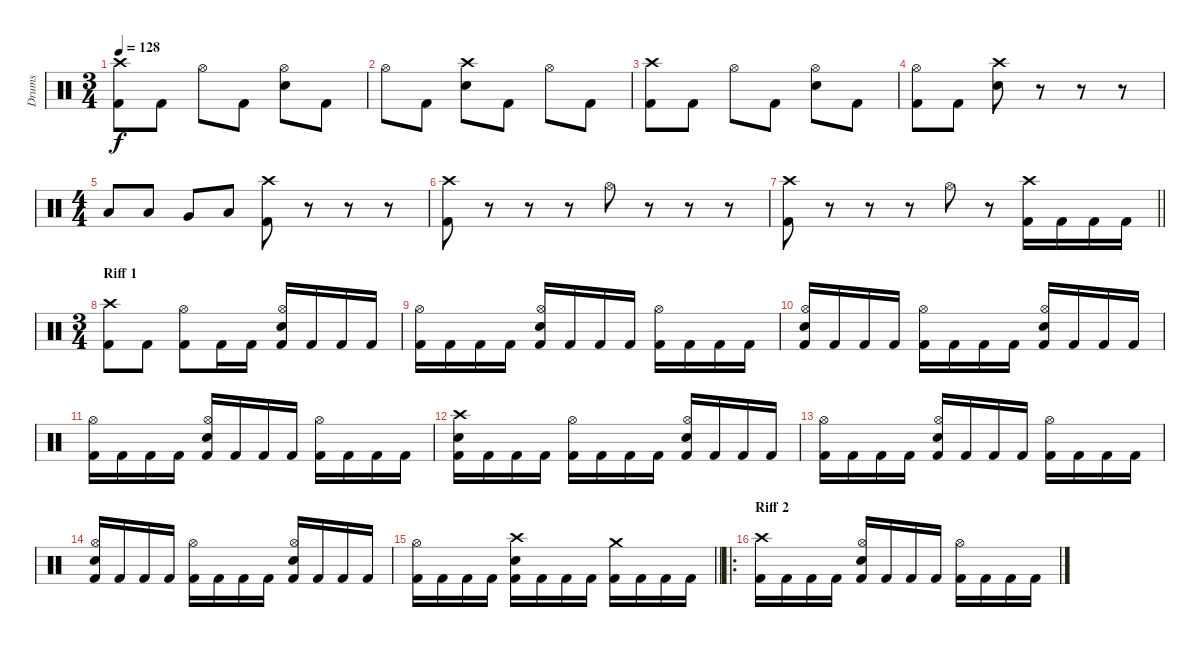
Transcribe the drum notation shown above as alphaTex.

\track ("Drums" "Drums") {instrument percussion}
\staff {score}
\articulation defaults
\ts (3 4)
\tempo 128
\clef neutral
\ks c
("Crash high (hit)" "Kick (hit) 2").8{dy f} "Kick (hit) 2".8 "Hi-Hat (open)".8 "Kick (hit) 2".8 ("Hi-Hat (open)" "Electric Snare (hit)").8 "Kick (hit) 2".8 |
"Hi-Hat (open)".8 "Kick (hit) 2".8 ("Crash high (hit)" "Electric Snare (hit)").8 "Kick (hit) 2".8 "Hi-Hat (open)".8 "Kick (hit) 2".8 |
("Crash high (hit)" "Kick (hit) 2").8 "Kick (hit) 2".8 "Hi-Hat (open)".8 "Kick (hit) 2".8 ("Hi-Hat (open)" "Electric Snare (hit)").8 "Kick (hit) 2".8 |
("Hi-Hat (open)" "Kick (hit) 2").8 "Kick (hit) 2".8 ("Crash high (hit)" "Electric Snare (hit)").8 r.8 r.8 r.8 |
\ts (4 4)
"Low Tom (hit)".8 "Low Floor Tom (hit)".8 "Very Low Tom (hit)".8 "Low Floor Tom (hit)".8 ("Crash high (hit)" "Kick (hit) 2").8 r.8 r.8 r.8 |
("Crash high (hit)" "Kick (hit) 2").8 r.8 r.8 r.8 "Hi-Hat (open)".8 r.8 r.8 r.8 |
\barLineRight lightlight
("Crash high (hit)" "Kick (hit) 2").8 r.8 r.8 r.8 "Hi-Hat (open)".8 r.8 ("Crash high (hit)" "Kick (hit) 2").16 "Kick (hit) 2".16 "Kick (hit) 2".16 "Kick (hit) 2".16 |
\ts (3 4)
\section ("" "Riff 1")
("Crash high (hit)" "Kick (hit) 2").8 "Kick (hit) 2".8 ("Hi-Hat (open)" "Kick (hit) 2").8 "Kick (hit) 2".16 "Kick (hit) 2".16 ("Hi-Hat (open)" "Electric Snare (hit)" "Kick (hit) 2").16 "Kick (hit) 2".16 "Kick (hit) 2".16 "Kick (hit) 2".16 |
("Hi-Hat (open)" "Kick (hit) 2").16 "Kick (hit) 2".16 "Kick (hit) 2".16 "Kick (hit) 2".16 ("Hi-Hat (open)" "Electric Snare (hit)" "Kick (hit) 2").16 "Kick (hit) 2".16 "Kick (hit) 2".16 "Kick (hit) 2".16 ("Hi-Hat (open)" "Kick (hit) 2").16 "Kick (hit) 2".16 "Kick (hit) 2".16 "Kick (hit) 2".16 |
("Hi-Hat (open)" "Electric Snare (hit)" "Kick (hit) 2").16 "Kick (hit) 2".16 "Kick (hit) 2".16 "Kick (hit) 2".16 ("Hi-Hat (open)" "Kick (hit) 2").16 "Kick (hit) 2".16 "Kick (hit) 2".16 "Kick (hit) 2".16 ("Hi-Hat (open)" "Electric Snare (hit)" "Kick (hit) 2").16 "Kick (hit) 2".16 "Kick (hit) 2".16 "Kick (hit) 2".16 |
("Hi-Hat (open)" "Kick (hit) 2").16 "Kick (hit) 2".16 "Kick (hit) 2".16 "Kick (hit) 2".16 ("Hi-Hat (open)" "Electric Snare (hit)" "Kick (hit) 2").16 "Kick (hit) 2".16 "Kick (hit) 2".16 "Kick (hit) 2".16 ("Hi-Hat (open)" "Kick (hit) 2").16 "Kick (hit) 2".16 "Kick (hit) 2".16 "Kick (hit) 2".16 |
("Crash high (hit)" "Electric Snare (hit)" "Kick (hit) 2").16 "Kick (hit) 2".16 "Kick (hit) 2".16 "Kick (hit) 2".16 ("Hi-Hat (open)" "Kick (hit) 2").16 "Kick (hit) 2".16 "Kick (hit) 2".16 "Kick (hit) 2".16 ("Hi-Hat (open)" "Electric Snare (hit)" "Kick (hit) 2").16 "Kick (hit) 2".16 "Kick (hit) 2".16 "Kick (hit) 2".16 |
("Hi-Hat (open)" "Kick (hit) 2").16 "Kick (hit) 2".16 "Kick (hit) 2".16 "Kick (hit) 2".16 ("Hi-Hat (open)" "Electric Snare (hit)" "Kick (hit) 2").16 "Kick (hit) 2".16 "Kick (hit) 2".16 "Kick (hit) 2".16 ("Hi-Hat (open)" "Kick (hit) 2").16 "Kick (hit) 2".16 "Kick (hit) 2".16 "Kick (hit) 2".16 |
("Hi-Hat (open)" "Electric Snare (hit)" "Kick (hit) 2").16 "Kick (hit) 2".16 "Kick (hit) 2".16 "Kick (hit) 2".16 ("Hi-Hat (open)" "Kick (hit) 2").16 "Kick (hit) 2".16 "Kick (hit) 2".16 "Kick (hit) 2".16 ("Hi-Hat (open)" "Electric Snare (hit)" "Kick (hit) 2").16 "Kick (hit) 2".16 "Kick (hit) 2".16 "Kick (hit) 2".16 |
\barLineRight lightlight
("Hi-Hat (open)" "Kick (hit) 2").16 "Kick (hit) 2".16 "Kick (hit) 2".16 "Kick (hit) 2".16 ("Crash high (hit)" "Electric Snare (hit)" "Kick (hit) 2").16 "Kick (hit) 2".16 "Kick (hit) 2".16 "Kick (hit) 2".16 ("Crash medium (hit)" "Kick (hit) 2").16 "Kick (hit) 2".16 "Kick (hit) 2".16 "Kick (hit) 2".16 |
\ro
\section ("" "Riff 2")
("Crash high (hit)" "Kick (hit) 2").16 "Kick (hit) 2".16 "Kick (hit) 2".16 "Kick (hit) 2".16 ("Hi-Hat (open)" "Electric Snare (hit)" "Kick (hit) 2").16 "Kick (hit) 2".16 "Kick (hit) 2".16 "Kick (hit) 2".16 ("Hi-Hat (open)" "Kick (hit) 2").16 "Kick (hit) 2".16 "Kick (hit) 2".16 "Kick (hit) 2".16
